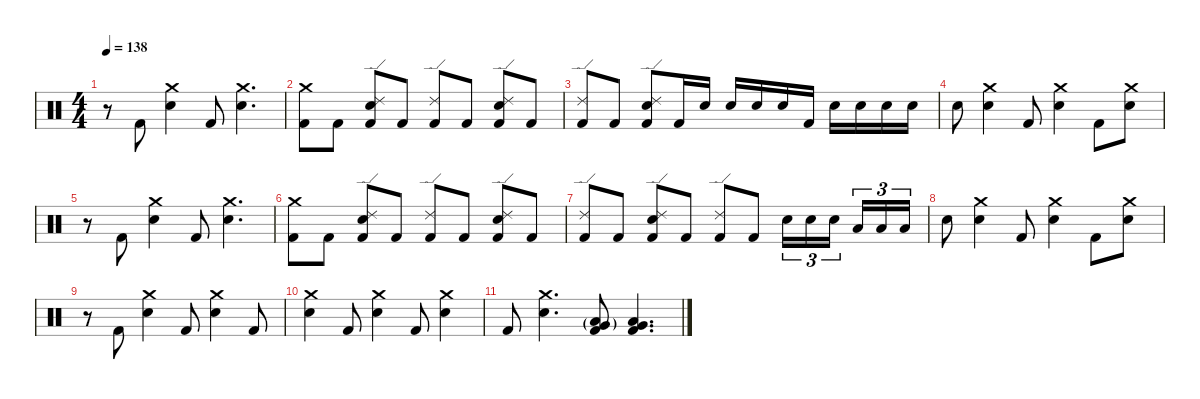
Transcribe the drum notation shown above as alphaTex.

\defaultSystemsLayout 4
\hideDynamics
\bracketExtendMode nobrackets
\singleTrackTrackNamePolicy hidden
\multiTrackTrackNamePolicy hidden
\firstSystemTrackNameMode fullname
\firstSystemTrackNameOrientation horizontal
\otherSystemsTrackNameOrientation horizontal
\track ("Drums" "drm.") {instrument percussion}
\staff {score}
\articulation defaults
\ts (4 4)
\tempo 138
\clef neutral
\ks c
r.8{dy f beam Down} "Kick (hit) 2".8{beam Up} ("Crash medium (hit)" "Snare (hit) 2").4{beam Down} "Kick (hit) 2".8{beam Up} ("Crash medium (hit)" "Snare (hit) 2").4{d beam Down} |
("Crash medium (hit)" "Kick (hit) 2").8{beam Down} "Kick (hit) 2".8{beam Down} ("Ride (edge) 2" "Snare (hit) 2" "Kick (hit) 2").8{beam Up} "Kick (hit) 2".8{beam Up} ("Ride (edge) 2" "Kick (hit) 2").8{beam Up} "Kick (hit) 2".8{beam Up} ("Ride (edge) 2" "Snare (hit) 2" "Kick (hit) 2").8{beam Up} "Kick (hit) 2".8{beam Up} |
("Ride (edge) 2" "Kick (hit) 2").8{beam Up} "Kick (hit) 2".8{beam Up} ("Ride (edge) 2" "Snare (hit) 2" "Kick (hit) 2").8{beam Up} "Kick (hit) 2".16{beam Up} "Snare (hit) 2".16{beam Up} "Snare (hit) 2".16{beam Up} "Snare (hit) 2".16{beam Up} "Snare (hit) 2".16{beam Up} "Kick (hit) 2".16{beam Up} "Snare (hit) 2".16{beam Down} "Snare (hit) 2".16{beam Down} "Snare (hit) 2".16{beam Down} "Snare (hit) 2".16{beam Down} |
"Snare (hit) 2".8{beam Down} ("Crash medium (hit)" "Snare (hit) 2").4{beam Down} "Kick (hit) 2".8{beam Up} ("Crash medium (hit)" "Snare (hit) 2").4{beam Down} "Kick (hit) 2".8{beam Down} ("Crash medium (hit)" "Snare (hit) 2").8{beam Down} |
r.8{beam Down} "Kick (hit) 2".8{beam Up} ("Crash medium (hit)" "Snare (hit) 2").4{beam Down} "Kick (hit) 2".8{beam Up} ("Crash medium (hit)" "Snare (hit) 2").4{d beam Down} |
("Crash medium (hit)" "Kick (hit) 2").8{beam Down} "Kick (hit) 2".8{beam Down} ("Ride (edge) 2" "Snare (hit) 2" "Kick (hit) 2").8{beam Up} "Kick (hit) 2".8{beam Up} ("Ride (edge) 2" "Kick (hit) 2").8{beam Up} "Kick (hit) 2".8{beam Up} ("Ride (edge) 2" "Snare (hit) 2" "Kick (hit) 2").8{beam Up} "Kick (hit) 2".8{beam Up} |
("Ride (edge) 2" "Kick (hit) 2").8{beam Up} "Kick (hit) 2".8{beam Up} ("Ride (edge) 2" "Snare (hit) 2" "Kick (hit) 2").8{beam Up} "Kick (hit) 2".8{beam Up} ("Ride (edge) 2" "Kick (hit) 2").8{beam Up} "Kick (hit) 2".8{beam Up} "Snare (hit) 2".16{tu (3 2) beam Down} "Snare (hit) 2".16{tu (3 2) beam Down} "Snare (hit) 2".16{tu (3 2) beam Down} "Low Tom (hit)".16{tu (3 2) beam Up} "Low Tom (hit)".16{tu (3 2) beam Up} "Low Tom (hit)".16{tu (3 2) beam Up} |
"Snare (hit) 2".8{beam Down} ("Crash medium (hit)" "Snare (hit) 2").4{beam Down} "Kick (hit) 2".8{beam Up} ("Crash medium (hit)" "Snare (hit) 2").4{beam Down} "Kick (hit) 2".8{beam Down} ("Crash medium (hit)" "Snare (hit) 2").8{beam Down} |
r.8{beam Down} "Kick (hit) 2".8{beam Up} ("Crash medium (hit)" "Snare (hit) 2").4{beam Down} "Kick (hit) 2".8{beam Up} ("Crash medium (hit)" "Snare (hit) 2").4{beam Down} "Kick (hit) 2".8{beam Up} |
("Crash medium (hit)" "Snare (hit) 2").4{beam Down} "Kick (hit) 2".8{beam Up} ("Crash medium (hit)" "Snare (hit) 2").4{beam Down} "Kick (hit) 2".8{beam Up} ("Crash medium (hit)" "Snare (hit) 2").4{beam Down} |
"Kick (hit) 2".8{beam Up} ("Crash medium (hit)" "Snare (hit) 2").4{d beam Down} ("Low Tom (hit)"{g} "Very Low Tom (hit)"{g} "Kick (hit) 2").8{beam Up} ("Low Tom (hit)" "Very Low Tom (hit)" "Kick (hit) 2").4{d beam Up}
